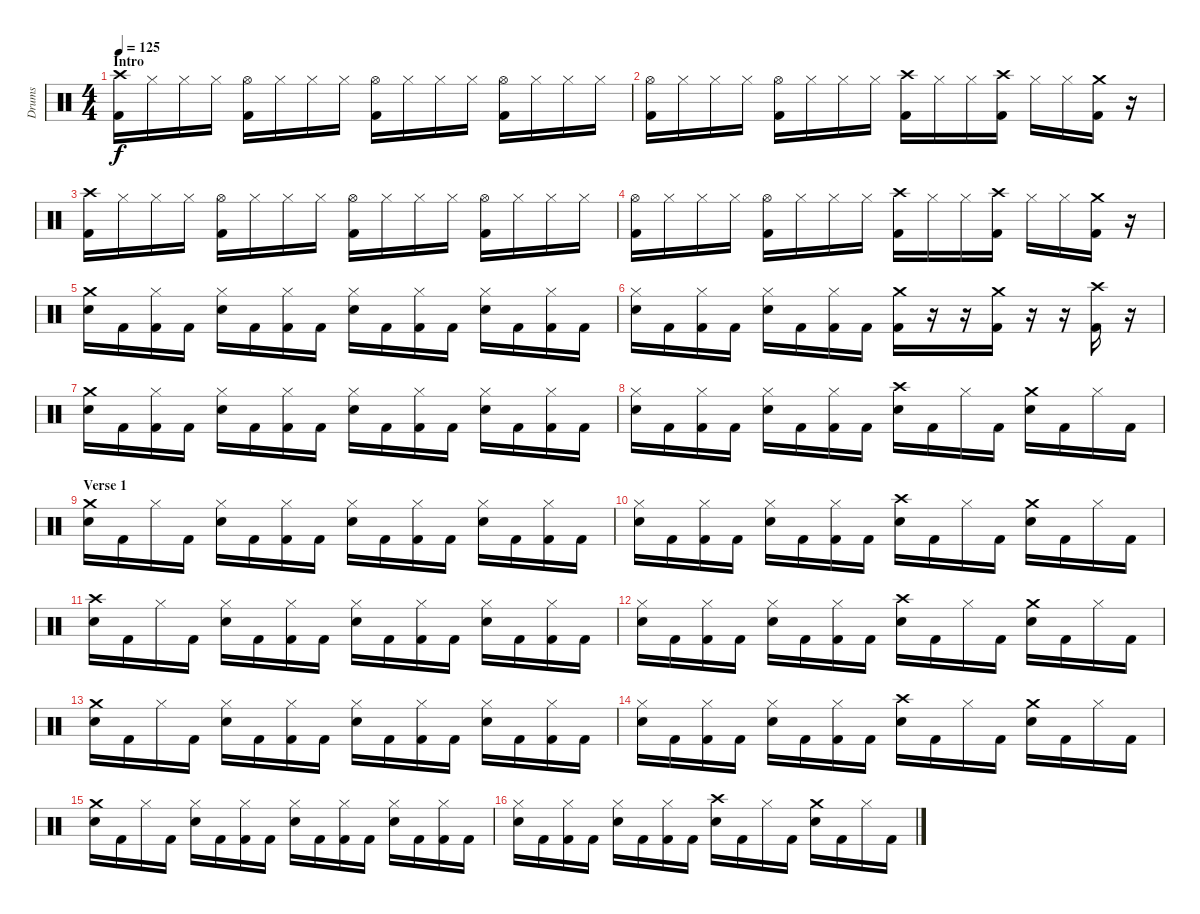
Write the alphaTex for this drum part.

\track ("Drums" "Drums") {instrument percussion}
\staff {score}
\articulation defaults
\ts (4 4)
\section ("" "Intro")
\tempo 125
\clef neutral
\ks c
("Crash high (hit)" "Kick (hit) 2").16{dy f} "Hi-Hat (closed)".16 "Hi-Hat (closed)".16 "Hi-Hat (closed)".16 ("Hi-Hat (open)" "Kick (hit) 2").16 "Hi-Hat (closed)".16 "Hi-Hat (closed)".16 "Hi-Hat (closed)".16 ("Hi-Hat (open)" "Kick (hit) 2").16 "Hi-Hat (closed)".16 "Hi-Hat (closed)".16 "Hi-Hat (closed)".16 ("Hi-Hat (open)" "Kick (hit) 2").16 "Hi-Hat (closed)".16 "Hi-Hat (closed)".16 "Hi-Hat (closed)".16 |
("Hi-Hat (open)" "Kick (hit) 2").16 "Hi-Hat (closed)".16 "Hi-Hat (closed)".16 "Hi-Hat (closed)".16 ("Hi-Hat (open)" "Kick (hit) 2").16 "Hi-Hat (closed)".16 "Hi-Hat (closed)".16 "Hi-Hat (closed)".16 ("Crash high (hit)" "Kick (hit) 2").16 "Hi-Hat (closed)".16 "Hi-Hat (closed)".16 ("Crash high (hit)" "Kick (hit) 2").16 "Hi-Hat (closed)".16 "Hi-Hat (closed)".16 ("Crash medium (hit)" "Kick (hit) 2").16 r.16 |
("Crash high (hit)" "Kick (hit) 2").16 "Hi-Hat (closed)".16 "Hi-Hat (closed)".16 "Hi-Hat (closed)".16 ("Hi-Hat (open)" "Kick (hit) 2").16 "Hi-Hat (closed)".16 "Hi-Hat (closed)".16 "Hi-Hat (closed)".16 ("Hi-Hat (open)" "Kick (hit) 2").16 "Hi-Hat (closed)".16 "Hi-Hat (closed)".16 "Hi-Hat (closed)".16 ("Hi-Hat (open)" "Kick (hit) 2").16 "Hi-Hat (closed)".16 "Hi-Hat (closed)".16 "Hi-Hat (closed)".16 |
("Hi-Hat (open)" "Kick (hit) 2").16 "Hi-Hat (closed)".16 "Hi-Hat (closed)".16 "Hi-Hat (closed)".16 ("Hi-Hat (open)" "Kick (hit) 2").16 "Hi-Hat (closed)".16 "Hi-Hat (closed)".16 "Hi-Hat (closed)".16 ("Crash high (hit)" "Kick (hit) 2").16 "Hi-Hat (closed)".16 "Hi-Hat (closed)".16 ("Crash high (hit)" "Kick (hit) 2").16 "Hi-Hat (closed)".16 "Hi-Hat (closed)".16 ("Crash medium (hit)" "Kick (hit) 2").16 r.16 |
("Crash medium (hit)" "Electric Snare (hit)").16 "Kick (hit) 2".16 ("Hi-Hat (closed)" "Kick (hit) 2").16 "Kick (hit) 2".16 ("Hi-Hat (closed)" "Electric Snare (hit)").16 "Kick (hit) 2".16 ("Hi-Hat (closed)" "Kick (hit) 2").16 "Kick (hit) 2".16 ("Hi-Hat (closed)" "Electric Snare (hit)").16 "Kick (hit) 2".16 ("Hi-Hat (closed)" "Kick (hit) 2").16 "Kick (hit) 2".16 ("Hi-Hat (closed)" "Electric Snare (hit)").16 "Kick (hit) 2".16 ("Hi-Hat (closed)" "Kick (hit) 2").16 "Kick (hit) 2".16 |
("Hi-Hat (closed)" "Electric Snare (hit)").16 "Kick (hit) 2".16 ("Hi-Hat (closed)" "Kick (hit) 2").16 "Kick (hit) 2".16 ("Hi-Hat (closed)" "Electric Snare (hit)").16 "Kick (hit) 2".16 ("Hi-Hat (closed)" "Kick (hit) 2").16 "Kick (hit) 2".16 ("Crash medium (hit)" "Kick (hit) 2").16 r.16 r.16 ("Crash medium (hit)" "Kick (hit) 2").16 r.16 r.16 ("Crash high (hit)" "Kick (hit) 2").16 r.16 |
("Crash medium (hit)" "Electric Snare (hit)").16 "Kick (hit) 2".16 ("Hi-Hat (closed)" "Kick (hit) 2").16 "Kick (hit) 2".16 ("Hi-Hat (closed)" "Electric Snare (hit)").16 "Kick (hit) 2".16 ("Hi-Hat (closed)" "Kick (hit) 2").16 "Kick (hit) 2".16 ("Hi-Hat (closed)" "Electric Snare (hit)").16 "Kick (hit) 2".16 ("Hi-Hat (closed)" "Kick (hit) 2").16 "Kick (hit) 2".16 ("Hi-Hat (closed)" "Electric Snare (hit)").16 "Kick (hit) 2".16 ("Hi-Hat (closed)" "Kick (hit) 2").16 "Kick (hit) 2".16 |
("Hi-Hat (closed)" "Electric Snare (hit)").16 "Kick (hit) 2".16 ("Hi-Hat (closed)" "Kick (hit) 2").16 "Kick (hit) 2".16 ("Hi-Hat (closed)" "Electric Snare (hit)").16 "Kick (hit) 2".16 ("Hi-Hat (closed)" "Kick (hit) 2").16 "Kick (hit) 2".16 ("Crash high (hit)" "Electric Snare (hit)").16 "Kick (hit) 2".16 "Hi-Hat (closed)".16 "Kick (hit) 2".16 ("Crash medium (hit)" "Electric Snare (hit)").16 "Kick (hit) 2".16 "Hi-Hat (closed)".16 "Kick (hit) 2".16 |
\section ("" "Verse 1")
("Crash medium (hit)" "Electric Snare (hit)").16 "Kick (hit) 2".16 "Hi-Hat (closed)".16 "Kick (hit) 2".16 ("Hi-Hat (closed)" "Electric Snare (hit)").16 "Kick (hit) 2".16 ("Hi-Hat (closed)" "Kick (hit) 2").16 "Kick (hit) 2".16 ("Hi-Hat (closed)" "Electric Snare (hit)").16 "Kick (hit) 2".16 ("Hi-Hat (closed)" "Kick (hit) 2").16 "Kick (hit) 2".16 ("Hi-Hat (closed)" "Electric Snare (hit)").16 "Kick (hit) 2".16 ("Hi-Hat (closed)" "Kick (hit) 2").16 "Kick (hit) 2".16 |
("Hi-Hat (closed)" "Electric Snare (hit)").16 "Kick (hit) 2".16 ("Hi-Hat (closed)" "Kick (hit) 2").16 "Kick (hit) 2".16 ("Hi-Hat (closed)" "Electric Snare (hit)").16 "Kick (hit) 2".16 ("Hi-Hat (closed)" "Kick (hit) 2").16 "Kick (hit) 2".16 ("Crash high (hit)" "Electric Snare (hit)").16 "Kick (hit) 2".16 "Hi-Hat (closed)".16 "Kick (hit) 2".16 ("Crash medium (hit)" "Electric Snare (hit)").16 "Kick (hit) 2".16 "Hi-Hat (closed)".16 "Kick (hit) 2".16 |
("Crash high (hit)" "Electric Snare (hit)").16 "Kick (hit) 2".16 "Hi-Hat (closed)".16 "Kick (hit) 2".16 ("Hi-Hat (closed)" "Electric Snare (hit)").16 "Kick (hit) 2".16 ("Hi-Hat (closed)" "Kick (hit) 2").16 "Kick (hit) 2".16 ("Hi-Hat (closed)" "Electric Snare (hit)").16 "Kick (hit) 2".16 ("Hi-Hat (closed)" "Kick (hit) 2").16 "Kick (hit) 2".16 ("Hi-Hat (closed)" "Electric Snare (hit)").16 "Kick (hit) 2".16 ("Hi-Hat (closed)" "Kick (hit) 2").16 "Kick (hit) 2".16 |
("Hi-Hat (closed)" "Electric Snare (hit)").16 "Kick (hit) 2".16 ("Hi-Hat (closed)" "Kick (hit) 2").16 "Kick (hit) 2".16 ("Hi-Hat (closed)" "Electric Snare (hit)").16 "Kick (hit) 2".16 ("Hi-Hat (closed)" "Kick (hit) 2").16 "Kick (hit) 2".16 ("Crash high (hit)" "Electric Snare (hit)").16 "Kick (hit) 2".16 "Hi-Hat (closed)".16 "Kick (hit) 2".16 ("Crash medium (hit)" "Electric Snare (hit)").16 "Kick (hit) 2".16 "Hi-Hat (closed)".16 "Kick (hit) 2".16 |
("Crash medium (hit)" "Electric Snare (hit)").16 "Kick (hit) 2".16 "Hi-Hat (closed)".16 "Kick (hit) 2".16 ("Hi-Hat (closed)" "Electric Snare (hit)").16 "Kick (hit) 2".16 ("Hi-Hat (closed)" "Kick (hit) 2").16 "Kick (hit) 2".16 ("Hi-Hat (closed)" "Electric Snare (hit)").16 "Kick (hit) 2".16 ("Hi-Hat (closed)" "Kick (hit) 2").16 "Kick (hit) 2".16 ("Hi-Hat (closed)" "Electric Snare (hit)").16 "Kick (hit) 2".16 ("Hi-Hat (closed)" "Kick (hit) 2").16 "Kick (hit) 2".16 |
("Hi-Hat (closed)" "Electric Snare (hit)").16 "Kick (hit) 2".16 ("Hi-Hat (closed)" "Kick (hit) 2").16 "Kick (hit) 2".16 ("Hi-Hat (closed)" "Electric Snare (hit)").16 "Kick (hit) 2".16 ("Hi-Hat (closed)" "Kick (hit) 2").16 "Kick (hit) 2".16 ("Crash high (hit)" "Electric Snare (hit)").16 "Kick (hit) 2".16 "Hi-Hat (closed)".16 "Kick (hit) 2".16 ("Crash medium (hit)" "Electric Snare (hit)").16 "Kick (hit) 2".16 "Hi-Hat (closed)".16 "Kick (hit) 2".16 |
("Crash medium (hit)" "Electric Snare (hit)").16 "Kick (hit) 2".16 "Hi-Hat (closed)".16 "Kick (hit) 2".16 ("Hi-Hat (closed)" "Electric Snare (hit)").16 "Kick (hit) 2".16 ("Hi-Hat (closed)" "Kick (hit) 2").16 "Kick (hit) 2".16 ("Hi-Hat (closed)" "Electric Snare (hit)").16 "Kick (hit) 2".16 ("Hi-Hat (closed)" "Kick (hit) 2").16 "Kick (hit) 2".16 ("Hi-Hat (closed)" "Electric Snare (hit)").16 "Kick (hit) 2".16 ("Hi-Hat (closed)" "Kick (hit) 2").16 "Kick (hit) 2".16 |
("Hi-Hat (closed)" "Electric Snare (hit)").16 "Kick (hit) 2".16 ("Hi-Hat (closed)" "Kick (hit) 2").16 "Kick (hit) 2".16 ("Hi-Hat (closed)" "Electric Snare (hit)").16 "Kick (hit) 2".16 ("Hi-Hat (closed)" "Kick (hit) 2").16 "Kick (hit) 2".16 ("Crash high (hit)" "Electric Snare (hit)").16 "Kick (hit) 2".16 "Hi-Hat (closed)".16 "Kick (hit) 2".16 ("Crash medium (hit)" "Electric Snare (hit)").16 "Kick (hit) 2".16 "Hi-Hat (closed)".16 "Kick (hit) 2".16
